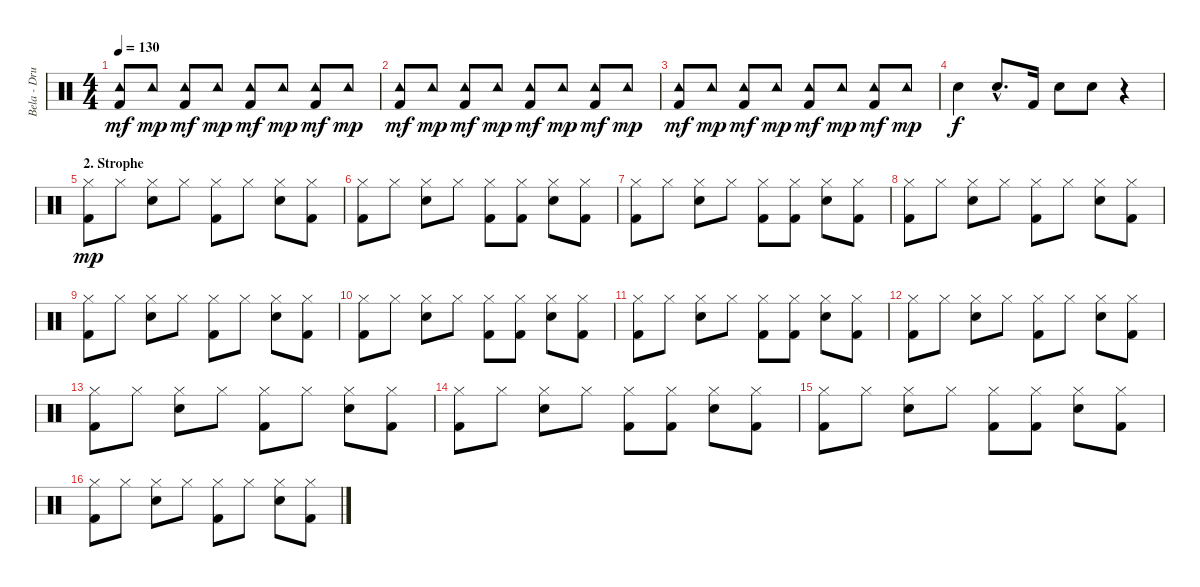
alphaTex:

\track ("Bela - Drums" "Bela - Dru") {instrument percussion}
\staff {score}
\articulation defaults
\ts (4 4)
\tempo 130
\clef neutral
\ks c
("Tambourine (hit)" "Kick (hit) 2").8{dy mf} "Tambourine (hit)".8{dy mp} ("Tambourine (hit)" "Kick (hit) 2").8{dy mf} "Tambourine (hit)".8{dy mp} ("Tambourine (hit)" "Kick (hit) 2").8{dy mf} "Tambourine (hit)".8{dy mp} ("Tambourine (hit)" "Kick (hit) 2").8{dy mf} "Tambourine (hit)".8{dy mp} |
("Tambourine (hit)" "Kick (hit) 2").8{dy mf} "Tambourine (hit)".8{dy mp} ("Tambourine (hit)" "Kick (hit) 2").8{dy mf} "Tambourine (hit)".8{dy mp} ("Tambourine (hit)" "Kick (hit) 2").8{dy mf} "Tambourine (hit)".8{dy mp} ("Tambourine (hit)" "Kick (hit) 2").8{dy mf} "Tambourine (hit)".8{dy mp} |
("Tambourine (hit)" "Kick (hit) 2").8{dy mf} "Tambourine (hit)".8{dy mp} ("Tambourine (hit)" "Kick (hit) 2").8{dy mf} "Tambourine (hit)".8{dy mp} ("Tambourine (hit)" "Kick (hit) 2").8{dy mf} "Tambourine (hit)".8{dy mp} ("Tambourine (hit)" "Kick (hit) 2").8{dy mf} "Tambourine (hit)".8{dy mp} |
"Snare (hit) 2".4{dy f} "Snare (hit) 2"{hac}.8{d} "Kick (hit) 2".16 "Snare (hit) 2".8 "Snare (hit) 2".8 r.4 |
\section ("" "2. Strophe")
("Hi-Hat (closed)" "Kick (hit) 2").8{dy mp} "Hi-Hat (closed)".8 ("Hi-Hat (closed)" "Snare (hit) 2").8 "Hi-Hat (closed)".8 ("Hi-Hat (closed)" "Kick (hit) 2").8 "Hi-Hat (closed)".8 ("Hi-Hat (closed)" "Snare (hit) 2").8 ("Hi-Hat (closed)" "Kick (hit) 2").8 |
("Hi-Hat (closed)" "Kick (hit) 2").8 "Hi-Hat (closed)".8 ("Hi-Hat (closed)" "Snare (hit) 2").8 "Hi-Hat (closed)".8 ("Hi-Hat (closed)" "Kick (hit) 2").8 ("Hi-Hat (closed)" "Kick (hit) 2").8 ("Hi-Hat (closed)" "Snare (hit) 2").8 ("Hi-Hat (closed)" "Kick (hit) 2").8 |
("Hi-Hat (closed)" "Kick (hit) 2").8 "Hi-Hat (closed)".8 ("Hi-Hat (closed)" "Snare (hit) 2").8 "Hi-Hat (closed)".8 ("Hi-Hat (closed)" "Kick (hit) 2").8 ("Hi-Hat (closed)" "Kick (hit) 2").8 ("Hi-Hat (closed)" "Snare (hit) 2").8 ("Hi-Hat (closed)" "Kick (hit) 2").8 |
("Hi-Hat (closed)" "Kick (hit) 2").8 "Hi-Hat (closed)".8 ("Hi-Hat (closed)" "Snare (hit) 2").8 "Hi-Hat (closed)".8 ("Hi-Hat (closed)" "Kick (hit) 2").8 "Hi-Hat (closed)".8 ("Hi-Hat (closed)" "Snare (hit) 2").8 ("Hi-Hat (closed)" "Kick (hit) 2").8 |
("Hi-Hat (closed)" "Kick (hit) 2").8 "Hi-Hat (closed)".8 ("Hi-Hat (closed)" "Snare (hit) 2").8 "Hi-Hat (closed)".8 ("Hi-Hat (closed)" "Kick (hit) 2").8 "Hi-Hat (closed)".8 ("Hi-Hat (closed)" "Snare (hit) 2").8 ("Hi-Hat (closed)" "Kick (hit) 2").8 |
("Hi-Hat (closed)" "Kick (hit) 2").8 "Hi-Hat (closed)".8 ("Hi-Hat (closed)" "Snare (hit) 2").8 "Hi-Hat (closed)".8 ("Hi-Hat (closed)" "Kick (hit) 2").8 ("Hi-Hat (closed)" "Kick (hit) 2").8 ("Hi-Hat (closed)" "Snare (hit) 2").8 ("Hi-Hat (closed)" "Kick (hit) 2").8 |
("Hi-Hat (closed)" "Kick (hit) 2").8 "Hi-Hat (closed)".8 ("Hi-Hat (closed)" "Snare (hit) 2").8 "Hi-Hat (closed)".8 ("Hi-Hat (closed)" "Kick (hit) 2").8 ("Hi-Hat (closed)" "Kick (hit) 2").8 ("Hi-Hat (closed)" "Snare (hit) 2").8 ("Hi-Hat (closed)" "Kick (hit) 2").8 |
("Hi-Hat (closed)" "Kick (hit) 2").8 "Hi-Hat (closed)".8 ("Hi-Hat (closed)" "Snare (hit) 2").8 "Hi-Hat (closed)".8 ("Hi-Hat (closed)" "Kick (hit) 2").8 "Hi-Hat (closed)".8 ("Hi-Hat (closed)" "Snare (hit) 2").8 ("Hi-Hat (closed)" "Kick (hit) 2").8 |
("Hi-Hat (closed)" "Kick (hit) 2").8 "Hi-Hat (closed)".8 ("Hi-Hat (closed)" "Snare (hit) 2").8 "Hi-Hat (closed)".8 ("Hi-Hat (closed)" "Kick (hit) 2").8 "Hi-Hat (closed)".8 ("Hi-Hat (closed)" "Snare (hit) 2").8 ("Hi-Hat (closed)" "Kick (hit) 2").8 |
("Hi-Hat (closed)" "Kick (hit) 2").8 "Hi-Hat (closed)".8 ("Hi-Hat (closed)" "Snare (hit) 2").8 "Hi-Hat (closed)".8 ("Hi-Hat (closed)" "Kick (hit) 2").8 ("Hi-Hat (closed)" "Kick (hit) 2").8 ("Hi-Hat (closed)" "Snare (hit) 2").8 ("Hi-Hat (closed)" "Kick (hit) 2").8 |
("Hi-Hat (closed)" "Kick (hit) 2").8 "Hi-Hat (closed)".8 ("Hi-Hat (closed)" "Snare (hit) 2").8 "Hi-Hat (closed)".8 ("Hi-Hat (closed)" "Kick (hit) 2").8 ("Hi-Hat (closed)" "Kick (hit) 2").8 ("Hi-Hat (closed)" "Snare (hit) 2").8 ("Hi-Hat (closed)" "Kick (hit) 2").8 |
("Hi-Hat (closed)" "Kick (hit) 2").8 "Hi-Hat (closed)".8 ("Hi-Hat (closed)" "Snare (hit) 2").8 "Hi-Hat (closed)".8 ("Hi-Hat (closed)" "Kick (hit) 2").8 "Hi-Hat (closed)".8 ("Hi-Hat (closed)" "Snare (hit) 2").8 ("Hi-Hat (closed)" "Kick (hit) 2").8
